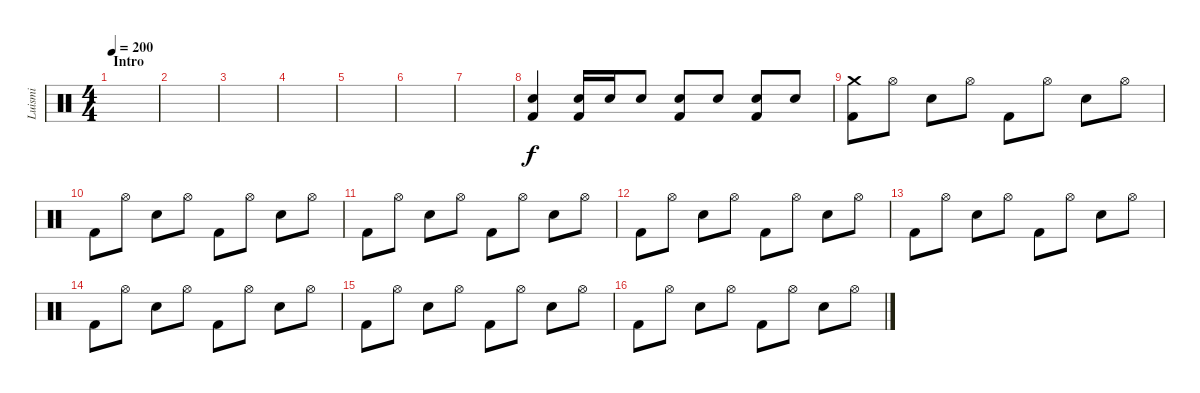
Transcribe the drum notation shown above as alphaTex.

\track ("Luismi" "Luismi") {instrument percussion}
\staff {score}
\articulation defaults
\ts (4 4)
\section ("" "Intro")
\tempo 200
\clef neutral
\ks c
|
|
|
|
|
|
|
("Snare (hit) 2" "Kick (hit) 2").4 ("Snare (hit) 2" "Kick (hit) 2").16 "Snare (hit) 2".16 "Snare (hit) 2".8 ("Snare (hit) 2" "Kick (hit) 2").8 "Snare (hit) 2".8 ("Snare (hit) 2" "Kick (hit) 2").8 "Snare (hit) 2".8 |
("Crash medium (hit)" "Kick (hit) 2").8 "Hi-Hat (open)".8 "Snare (hit) 2".8 "Hi-Hat (open)".8 "Kick (hit) 2".8 "Hi-Hat (open)".8 "Snare (hit) 2".8 "Hi-Hat (open)".8 |
"Kick (hit) 2".8 "Hi-Hat (open)".8 "Snare (hit) 2".8 "Hi-Hat (open)".8 "Kick (hit) 2".8 "Hi-Hat (open)".8 "Snare (hit) 2".8 "Hi-Hat (open)".8 |
"Kick (hit) 2".8 "Hi-Hat (open)".8 "Snare (hit) 2".8 "Hi-Hat (open)".8 "Kick (hit) 2".8 "Hi-Hat (open)".8 "Snare (hit) 2".8 "Hi-Hat (open)".8 |
"Kick (hit) 2".8 "Hi-Hat (open)".8 "Snare (hit) 2".8 "Hi-Hat (open)".8 "Kick (hit) 2".8 "Hi-Hat (open)".8 "Snare (hit) 2".8 "Hi-Hat (open)".8 |
"Kick (hit) 2".8 "Hi-Hat (open)".8 "Snare (hit) 2".8 "Hi-Hat (open)".8 "Kick (hit) 2".8 "Hi-Hat (open)".8 "Snare (hit) 2".8 "Hi-Hat (open)".8 |
"Kick (hit) 2".8 "Hi-Hat (open)".8 "Snare (hit) 2".8 "Hi-Hat (open)".8 "Kick (hit) 2".8 "Hi-Hat (open)".8 "Snare (hit) 2".8 "Hi-Hat (open)".8 |
"Kick (hit) 2".8 "Hi-Hat (open)".8 "Snare (hit) 2".8 "Hi-Hat (open)".8 "Kick (hit) 2".8 "Hi-Hat (open)".8 "Snare (hit) 2".8 "Hi-Hat (open)".8 |
"Kick (hit) 2".8 "Hi-Hat (open)".8 "Snare (hit) 2".8 "Hi-Hat (open)".8 "Kick (hit) 2".8 "Hi-Hat (open)".8 "Snare (hit) 2".8 "Hi-Hat (open)".8
